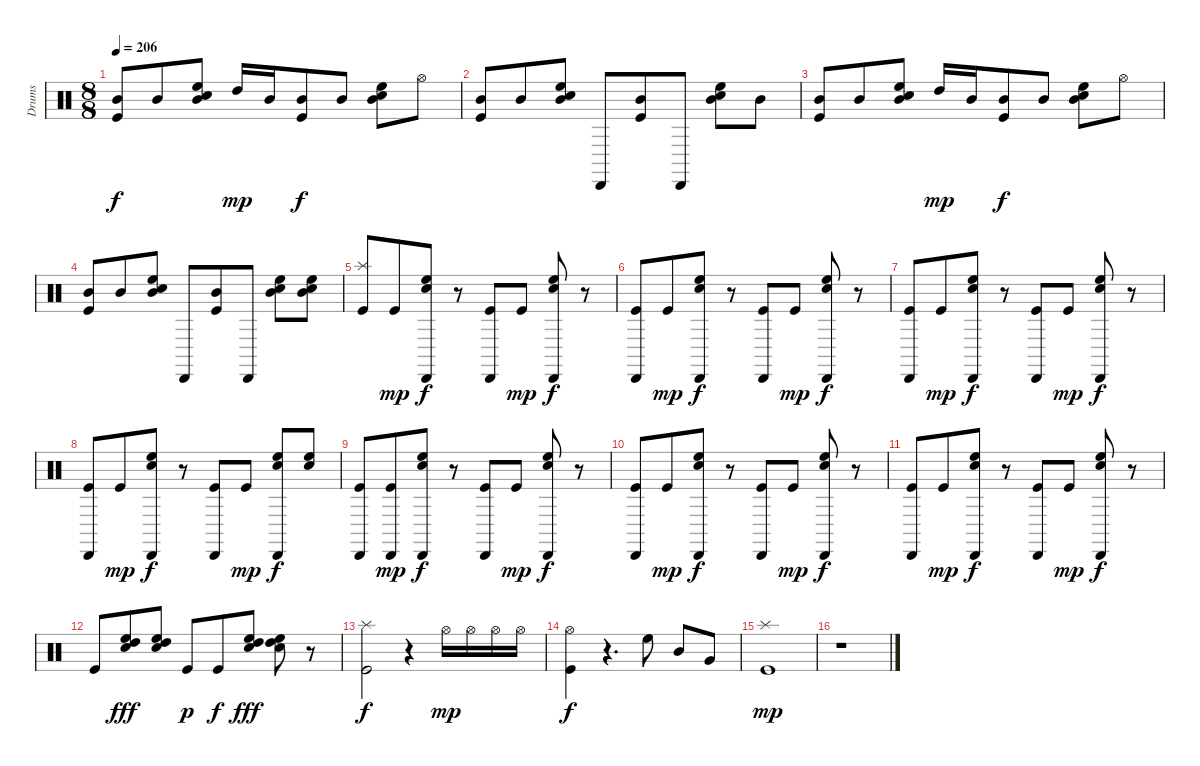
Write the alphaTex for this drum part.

\track ("Drums" "Drums") {instrument percussion}
\staff {score}
\articulation defaults
\ts (8 8)
\tempo 206
\clef neutral
\ks c
("Mid Tom (hit)" "Kick (hit)").8{dy f} "Mid Tom (hit)".8 ("Mid Tom (hit)" "High Floor Tom (hit)" "Electric Snare (hit)").8 "High Tom (hit)".16{dy mp} "Mid Tom (hit)".16 ("Mid Tom (hit)" "Kick (hit)").8{dy f} "Mid Tom (hit)".8 ("Mid Tom (hit)" "High Floor Tom (hit)" "Electric Snare (hit)").8 "Hi-Hat (open)".8 |
("Mid Tom (hit)" "Kick (hit)").8 "Mid Tom (hit)".8 ("Mid Tom (hit)" "High Floor Tom (hit)" "Electric Snare (hit)").8 "Cabasa (hit)".8 ("Mid Tom (hit)" "Kick (hit)").8 "Cabasa (hit)".8 ("Mid Tom (hit)" "High Floor Tom (hit)" "Electric Snare (hit)").8 "Mid Tom (hit)".8 |
("Mid Tom (hit)" "Kick (hit)").8 "Mid Tom (hit)".8 ("Mid Tom (hit)" "High Floor Tom (hit)" "Electric Snare (hit)").8 "High Tom (hit)".16{dy mp} "Mid Tom (hit)".16 ("Mid Tom (hit)" "Kick (hit)").8{dy f} "Mid Tom (hit)".8 ("Mid Tom (hit)" "High Floor Tom (hit)" "Electric Snare (hit)").8 "Hi-Hat (open)".8 |
("Mid Tom (hit)" "Kick (hit)").8 "Mid Tom (hit)".8 ("Mid Tom (hit)" "High Floor Tom (hit)" "Electric Snare (hit)").8 "Cabasa (hit)".8 ("Mid Tom (hit)" "Kick (hit)").8 "Cabasa (hit)".8 ("Mid Tom (hit)" "High Floor Tom (hit)" "Electric Snare (hit)").8 ("High Floor Tom (hit)" "Electric Snare (hit)" "Mid Tom (hit)").8 |
("Splash (hit)" "Kick (hit)").8 "Kick (hit)".8{dy mp} ("Cabasa (hit)" "High Floor Tom (hit)" "Electric Snare (hit)").8{dy f} r.8 ("Kick (hit)" "Cabasa (hit)").8 "Kick (hit)".8{dy mp} ("Cabasa (hit)" "High Floor Tom (hit)" "Electric Snare (hit)").8{dy f} r.8 |
("Kick (hit)" "Cabasa (hit)").8 "Kick (hit)".8{dy mp} ("Cabasa (hit)" "High Floor Tom (hit)" "Electric Snare (hit)").8{dy f} r.8 ("Kick (hit)" "Cabasa (hit)").8 "Kick (hit)".8{dy mp} ("Cabasa (hit)" "High Floor Tom (hit)" "Electric Snare (hit)").8{dy f} r.8 |
("Kick (hit)" "Cabasa (hit)").8 "Kick (hit)".8{dy mp} ("Cabasa (hit)" "High Floor Tom (hit)" "Electric Snare (hit)").8{dy f} r.8 ("Kick (hit)" "Cabasa (hit)").8 "Kick (hit)".8{dy mp} ("Cabasa (hit)" "High Floor Tom (hit)" "Electric Snare (hit)").8{dy f} r.8 |
("Kick (hit)" "Cabasa (hit)").8 "Kick (hit)".8{dy mp} ("Cabasa (hit)" "High Floor Tom (hit)" "Electric Snare (hit)").8{dy f} r.8 ("Kick (hit)" "Cabasa (hit)").8 "Kick (hit)".8{dy mp} ("Cabasa (hit)" "High Floor Tom (hit)" "Electric Snare (hit)").8{dy f} ("Electric Snare (hit)" "High Floor Tom (hit)").8 |
("Kick (hit)" "Cabasa (hit)").8 ("Cabasa (hit)" "Kick (hit)").8{dy mp} ("Cabasa (hit)" "High Floor Tom (hit)" "Electric Snare (hit)").8{dy f} r.8 ("Kick (hit)" "Cabasa (hit)").8 "Kick (hit)".8{dy mp} ("Cabasa (hit)" "High Floor Tom (hit)" "Electric Snare (hit)").8{dy f} r.8 |
("Kick (hit)" "Cabasa (hit)").8 "Kick (hit)".8{dy mp} ("Cabasa (hit)" "High Floor Tom (hit)" "Electric Snare (hit)").8{dy f} r.8 ("Kick (hit)" "Cabasa (hit)").8 "Kick (hit)".8{dy mp} ("Cabasa (hit)" "High Floor Tom (hit)" "Electric Snare (hit)").8{dy f} r.8 |
("Kick (hit)" "Cabasa (hit)").8 "Kick (hit)".8{dy mp} ("Cabasa (hit)" "High Floor Tom (hit)" "Electric Snare (hit)").8{dy f} r.8 ("Kick (hit)" "Cabasa (hit)").8 "Kick (hit)".8{dy mp} ("Cabasa (hit)" "High Floor Tom (hit)" "Electric Snare (hit)").8{dy f} r.8 |
"Kick (hit)".8 ("High Tom (hit)" "High Floor Tom (hit)" "Electric Snare (hit)").8{dy fff} ("High Tom (hit)" "High Floor Tom (hit)" "Electric Snare (hit)").8 "Kick (hit)".8{dy p} "Kick (hit)".8{dy f} ("Electric Snare (hit)" "High Tom (hit)" "High Floor Tom (hit)").8{dy fff} ("High Tom (hit)" "High Floor Tom (hit)" "Electric Snare (hit)").8 r.8 |
("Splash (hit)" "Kick (hit)").2{dy f} r.4 "Hi-Hat (open)".16{dy mp} "Hi-Hat (open)".16 "Hi-Hat (open)".16 "Hi-Hat (open)".16 |
("Kick (hit)" "Hi-Hat (open)").4{dy f} r.4{d} "High Floor Tom (hit)".8 "Mid Tom (hit)".8 "Very Low Tom (hit)".8 |
("Splash (hit)" "Kick (hit)").1{dy mp} |
r.1
